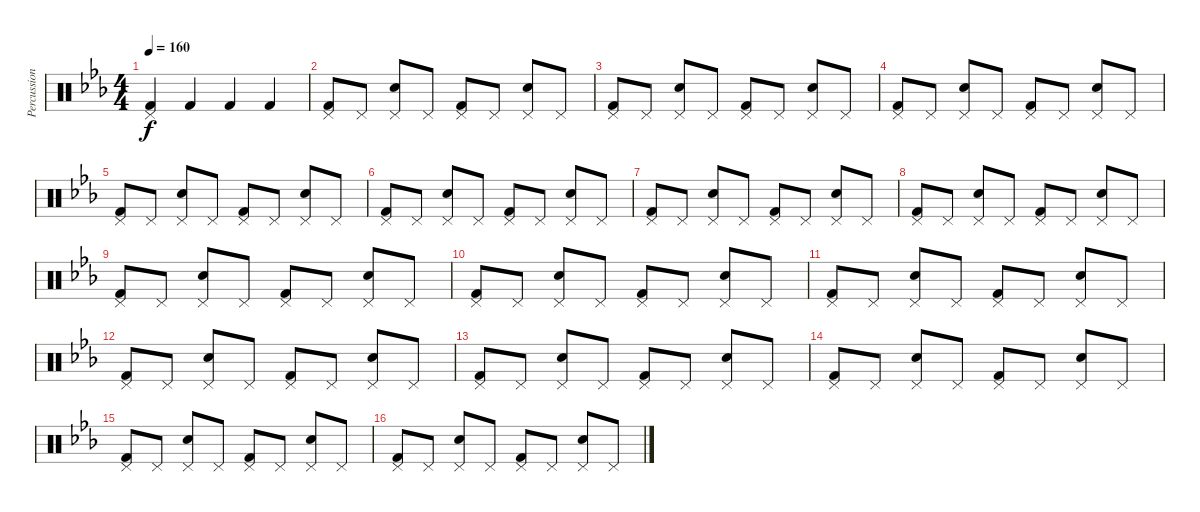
\track ("Percussions" "Percussion") {instrument percussion}
\staff {score}
\articulation defaults
\ts (4 4)
\tempo 160
\clef neutral
\ks eb
("Pedal Hi-Hat (hit)" "Kick (hit) 2").4{dy f} "Kick (hit) 2".4 "Kick (hit) 2".4 "Kick (hit) 2".4 |
("Pedal Hi-Hat (hit)" "Kick (hit) 2").8 "Pedal Hi-Hat (hit)".8 ("Pedal Hi-Hat (hit)" "Snare (hit) 2").8 "Pedal Hi-Hat (hit)".8 ("Pedal Hi-Hat (hit)" "Kick (hit) 2").8 "Pedal Hi-Hat (hit)".8 ("Pedal Hi-Hat (hit)" "Snare (hit) 2").8 "Pedal Hi-Hat (hit)".8 |
("Pedal Hi-Hat (hit)" "Kick (hit) 2").8 "Pedal Hi-Hat (hit)".8 ("Pedal Hi-Hat (hit)" "Snare (hit) 2").8 "Pedal Hi-Hat (hit)".8 ("Pedal Hi-Hat (hit)" "Kick (hit) 2").8 "Pedal Hi-Hat (hit)".8 ("Pedal Hi-Hat (hit)" "Snare (hit) 2").8 "Pedal Hi-Hat (hit)".8 |
("Pedal Hi-Hat (hit)" "Kick (hit) 2").8 "Pedal Hi-Hat (hit)".8 ("Pedal Hi-Hat (hit)" "Snare (hit) 2").8 "Pedal Hi-Hat (hit)".8 ("Pedal Hi-Hat (hit)" "Kick (hit) 2").8 "Pedal Hi-Hat (hit)".8 ("Pedal Hi-Hat (hit)" "Snare (hit) 2").8 "Pedal Hi-Hat (hit)".8 |
("Pedal Hi-Hat (hit)" "Kick (hit) 2").8 "Pedal Hi-Hat (hit)".8 ("Pedal Hi-Hat (hit)" "Snare (hit) 2").8 "Pedal Hi-Hat (hit)".8 ("Pedal Hi-Hat (hit)" "Kick (hit) 2").8 "Pedal Hi-Hat (hit)".8 ("Pedal Hi-Hat (hit)" "Snare (hit) 2").8 "Pedal Hi-Hat (hit)".8 |
("Pedal Hi-Hat (hit)" "Kick (hit) 2").8 "Pedal Hi-Hat (hit)".8 ("Pedal Hi-Hat (hit)" "Snare (hit) 2").8 "Pedal Hi-Hat (hit)".8 ("Pedal Hi-Hat (hit)" "Kick (hit) 2").8 "Pedal Hi-Hat (hit)".8 ("Pedal Hi-Hat (hit)" "Snare (hit) 2").8 "Pedal Hi-Hat (hit)".8 |
("Pedal Hi-Hat (hit)" "Kick (hit) 2").8 "Pedal Hi-Hat (hit)".8 ("Pedal Hi-Hat (hit)" "Snare (hit) 2").8 "Pedal Hi-Hat (hit)".8 ("Pedal Hi-Hat (hit)" "Kick (hit) 2").8 "Pedal Hi-Hat (hit)".8 ("Pedal Hi-Hat (hit)" "Snare (hit) 2").8 "Pedal Hi-Hat (hit)".8 |
("Pedal Hi-Hat (hit)" "Kick (hit) 2").8 "Pedal Hi-Hat (hit)".8 ("Pedal Hi-Hat (hit)" "Snare (hit) 2").8 "Pedal Hi-Hat (hit)".8 ("Pedal Hi-Hat (hit)" "Kick (hit) 2").8 "Pedal Hi-Hat (hit)".8 ("Pedal Hi-Hat (hit)" "Snare (hit) 2").8 "Pedal Hi-Hat (hit)".8 |
("Pedal Hi-Hat (hit)" "Kick (hit) 2").8 "Pedal Hi-Hat (hit)".8 ("Pedal Hi-Hat (hit)" "Snare (hit) 2").8 "Pedal Hi-Hat (hit)".8 ("Pedal Hi-Hat (hit)" "Kick (hit) 2").8 "Pedal Hi-Hat (hit)".8 ("Pedal Hi-Hat (hit)" "Snare (hit) 2").8 "Pedal Hi-Hat (hit)".8 |
("Pedal Hi-Hat (hit)" "Kick (hit) 2").8 "Pedal Hi-Hat (hit)".8 ("Pedal Hi-Hat (hit)" "Snare (hit) 2").8 "Pedal Hi-Hat (hit)".8 ("Pedal Hi-Hat (hit)" "Kick (hit) 2").8 "Pedal Hi-Hat (hit)".8 ("Pedal Hi-Hat (hit)" "Snare (hit) 2").8 "Pedal Hi-Hat (hit)".8 |
("Pedal Hi-Hat (hit)" "Kick (hit) 2").8 "Pedal Hi-Hat (hit)".8 ("Pedal Hi-Hat (hit)" "Snare (hit) 2").8 "Pedal Hi-Hat (hit)".8 ("Pedal Hi-Hat (hit)" "Kick (hit) 2").8 "Pedal Hi-Hat (hit)".8 ("Pedal Hi-Hat (hit)" "Snare (hit) 2").8 "Pedal Hi-Hat (hit)".8 |
("Pedal Hi-Hat (hit)" "Kick (hit) 2").8 "Pedal Hi-Hat (hit)".8 ("Pedal Hi-Hat (hit)" "Snare (hit) 2").8 "Pedal Hi-Hat (hit)".8 ("Pedal Hi-Hat (hit)" "Kick (hit) 2").8 "Pedal Hi-Hat (hit)".8 ("Pedal Hi-Hat (hit)" "Snare (hit) 2").8 "Pedal Hi-Hat (hit)".8 |
("Pedal Hi-Hat (hit)" "Kick (hit) 2").8 "Pedal Hi-Hat (hit)".8 ("Pedal Hi-Hat (hit)" "Snare (hit) 2").8 "Pedal Hi-Hat (hit)".8 ("Pedal Hi-Hat (hit)" "Kick (hit) 2").8 "Pedal Hi-Hat (hit)".8 ("Pedal Hi-Hat (hit)" "Snare (hit) 2").8 "Pedal Hi-Hat (hit)".8 |
("Pedal Hi-Hat (hit)" "Kick (hit) 2").8 "Pedal Hi-Hat (hit)".8 ("Pedal Hi-Hat (hit)" "Snare (hit) 2").8 "Pedal Hi-Hat (hit)".8 ("Pedal Hi-Hat (hit)" "Kick (hit) 2").8 "Pedal Hi-Hat (hit)".8 ("Pedal Hi-Hat (hit)" "Snare (hit) 2").8 "Pedal Hi-Hat (hit)".8 |
("Pedal Hi-Hat (hit)" "Kick (hit) 2").8 "Pedal Hi-Hat (hit)".8 ("Pedal Hi-Hat (hit)" "Snare (hit) 2").8 "Pedal Hi-Hat (hit)".8 ("Pedal Hi-Hat (hit)" "Kick (hit) 2").8 "Pedal Hi-Hat (hit)".8 ("Pedal Hi-Hat (hit)" "Snare (hit) 2").8 "Pedal Hi-Hat (hit)".8 |
("Pedal Hi-Hat (hit)" "Kick (hit) 2").8 "Pedal Hi-Hat (hit)".8 ("Pedal Hi-Hat (hit)" "Snare (hit) 2").8 "Pedal Hi-Hat (hit)".8 ("Pedal Hi-Hat (hit)" "Kick (hit) 2").8 "Pedal Hi-Hat (hit)".8 ("Pedal Hi-Hat (hit)" "Snare (hit) 2").8 "Pedal Hi-Hat (hit)".8
